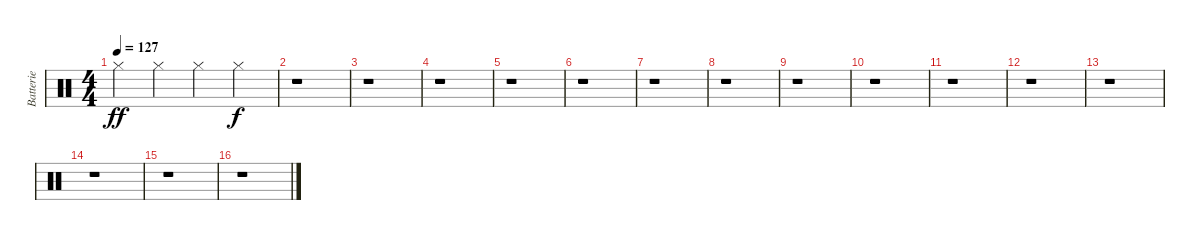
\track ("Batterie" "Batterie") {instrument percussion}
\staff {score}
\articulation defaults
\ts (4 4)
\tempo 127
\clef neutral
\ks c "Hi-Hat (closed)".4{dy ff} "Hi-Hat (closed)".4 "Hi-Hat (closed)".4 "Hi-Hat (closed)".4{dy f}
|
r.1 |
r.1 |
r.1 |
r.1 |
r.1 |
r.1 |
r.1 |
r.1 |
r.1 |
r.1 |
r.1 |
r.1 |
r.1 |
r.1 |
r.1
